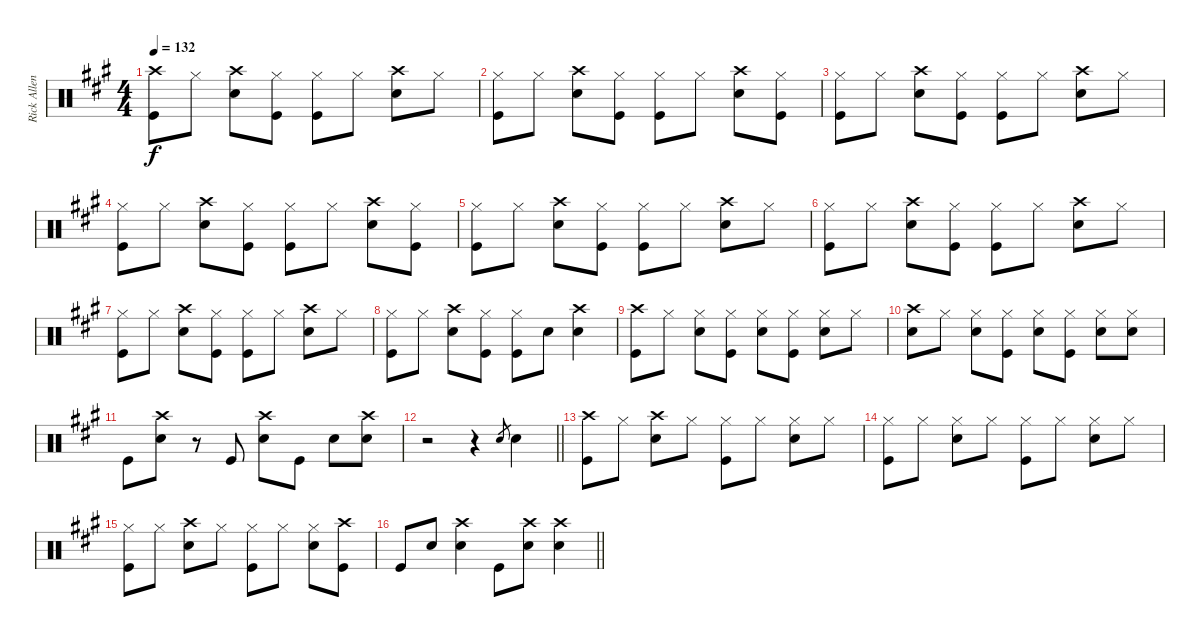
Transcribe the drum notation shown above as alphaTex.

\track ("Rick Allen" "Rick Allen") {instrument percussion}
\staff {score}
\articulation defaults
\ts (4 4)
\tempo 132
\clef neutral
\ks a
("Crash high (hit)" "Kick (hit)").8{dy f} "Hi-Hat (closed)".8 ("Crash high (hit)" "Snare (hit) 2").8 ("Hi-Hat (closed)" "Kick (hit)").8 ("Hi-Hat (closed)" "Kick (hit)").8 "Hi-Hat (closed)".8 ("Crash high (hit)" "Snare (hit) 2").8 "Hi-Hat (closed)".8 |
("Hi-Hat (closed)" "Kick (hit)").8 "Hi-Hat (closed)".8 ("Crash high (hit)" "Snare (hit) 2").8 ("Hi-Hat (closed)" "Kick (hit)").8 ("Hi-Hat (closed)" "Kick (hit)").8 "Hi-Hat (closed)".8 ("Crash high (hit)" "Snare (hit) 2").8 ("Hi-Hat (closed)" "Kick (hit)").8 |
("Hi-Hat (closed)" "Kick (hit)").8 "Hi-Hat (closed)".8 ("Crash high (hit)" "Snare (hit) 2").8 ("Hi-Hat (closed)" "Kick (hit)").8 ("Hi-Hat (closed)" "Kick (hit)").8 "Hi-Hat (closed)".8 ("Crash high (hit)" "Snare (hit) 2").8 "Hi-Hat (closed)".8 |
("Hi-Hat (closed)" "Kick (hit)").8 "Hi-Hat (closed)".8 ("Crash high (hit)" "Snare (hit) 2").8 ("Hi-Hat (closed)" "Kick (hit)").8 ("Hi-Hat (closed)" "Kick (hit)").8 "Hi-Hat (closed)".8 ("Crash high (hit)" "Snare (hit) 2").8 ("Hi-Hat (closed)" "Kick (hit)").8 |
("Hi-Hat (closed)" "Kick (hit)").8 "Hi-Hat (closed)".8 ("Crash high (hit)" "Snare (hit) 2").8 ("Hi-Hat (closed)" "Kick (hit)").8 ("Hi-Hat (closed)" "Kick (hit)").8 "Hi-Hat (closed)".8 ("Crash high (hit)" "Snare (hit) 2").8 "Hi-Hat (closed)".8 |
("Hi-Hat (closed)" "Kick (hit)").8 "Hi-Hat (closed)".8 ("Crash high (hit)" "Snare (hit) 2").8 ("Hi-Hat (closed)" "Kick (hit)").8 ("Hi-Hat (closed)" "Kick (hit)").8 "Hi-Hat (closed)".8 ("Crash high (hit)" "Snare (hit) 2").8 "Hi-Hat (closed)".8 |
("Hi-Hat (closed)" "Kick (hit)").8 "Hi-Hat (closed)".8 ("Crash high (hit)" "Snare (hit) 2").8 ("Hi-Hat (closed)" "Kick (hit)").8 ("Hi-Hat (closed)" "Kick (hit)").8 "Hi-Hat (closed)".8 ("Crash high (hit)" "Snare (hit) 2").8 "Hi-Hat (closed)".8 |
("Hi-Hat (closed)" "Kick (hit)").8 "Hi-Hat (closed)".8 ("Crash high (hit)" "Snare (hit) 2").8 ("Hi-Hat (closed)" "Kick (hit)").8 ("Hi-Hat (closed)" "Kick (hit)").8 "Snare (hit) 2".8 ("Crash high (hit)" "Snare (hit) 2").4 |
("Crash high (hit)" "Kick (hit)").8 "Hi-Hat (closed)".8 ("Hi-Hat (closed)" "Snare (hit) 2").8 ("Hi-Hat (closed)" "Kick (hit)").8 ("Hi-Hat (closed)" "Snare (hit) 2").8 ("Hi-Hat (closed)" "Kick (hit)").8 ("Hi-Hat (closed)" "Snare (hit) 2").8 "Hi-Hat (closed)".8 |
("Crash high (hit)" "Snare (hit) 2").8 "Hi-Hat (closed)".8 ("Hi-Hat (closed)" "Snare (hit) 2").8 ("Hi-Hat (closed)" "Kick (hit)").8 ("Hi-Hat (closed)" "Snare (hit) 2").8 ("Hi-Hat (closed)" "Kick (hit)").8 ("Hi-Hat (closed)" "Snare (hit) 2").8 ("Hi-Hat (closed)" "Snare (hit) 2").8 |
"Kick (hit)".8 ("Crash high (hit)" "Snare (hit) 2").8 r.8 "Kick (hit)".8 ("Crash high (hit)" "Snare (hit) 2").8 "Kick (hit)".8 "Snare (hit) 2".8 ("Crash high (hit)" "Snare (hit) 2").8 |
\barLineRight lightlight
r.2 r.4 "Snare (hit) 2".8{gr} "Snare (hit) 2".4 |
("Crash high (hit)" "Kick (hit)").8 "Hi-Hat (closed)".8 ("Crash high (hit)" "Snare (hit) 2").8 "Hi-Hat (closed)".8 ("Hi-Hat (closed)" "Kick (hit)").8 "Hi-Hat (closed)".8 ("Hi-Hat (closed)" "Snare (hit) 2").8 "Hi-Hat (closed)".8 |
("Hi-Hat (closed)" "Kick (hit)").8 "Hi-Hat (closed)".8 ("Hi-Hat (closed)" "Snare (hit) 2").8 "Hi-Hat (closed)".8 ("Hi-Hat (closed)" "Kick (hit)").8 "Hi-Hat (closed)".8 ("Hi-Hat (closed)" "Snare (hit) 2").8 "Hi-Hat (closed)".8 |
("Hi-Hat (closed)" "Kick (hit)").8 "Hi-Hat (closed)".8 ("Crash high (hit)" "Snare (hit) 2").8 "Hi-Hat (closed)".8 ("Hi-Hat (closed)" "Kick (hit)").8 "Hi-Hat (closed)".8 ("Hi-Hat (closed)" "Snare (hit) 2").8 ("Crash high (hit)" "Kick (hit)").8 |
\barLineRight lightlight "Kick (hit)".8 "Snare (hit) 2".8
("Crash high (hit)" "Snare (hit) 2").4 "Kick (hit)".8 ("Crash high (hit)" "Snare (hit) 2").8 ("Crash high (hit)" "Snare (hit) 2").4
